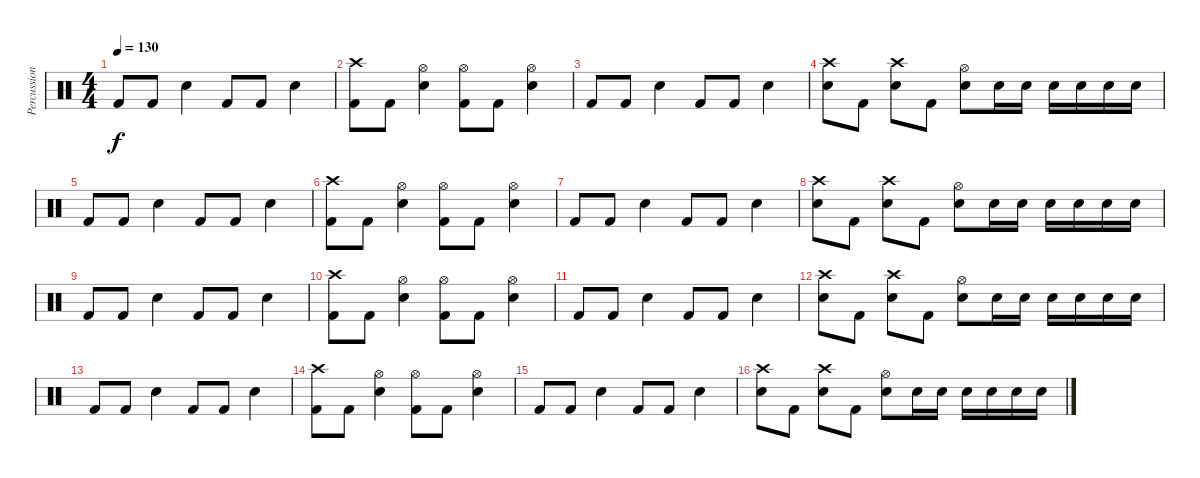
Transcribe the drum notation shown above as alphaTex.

\track ("Percussion" "Percussion") {instrument percussion}
\staff {score}
\articulation defaults
\ts (4 4)
\tempo 130
\clef neutral
\ks c "Kick (hit) 2".8{dy f} "Kick (hit) 2".8 "Snare (hit) 2".4 "Kick (hit) 2".8 "Kick (hit) 2".8 "Snare (hit) 2".4
|
("Crash high (hit)" "Kick (hit) 2").8 "Kick (hit) 2".8 ("Hi-Hat (open)" "Snare (hit) 2").4 ("Hi-Hat (open)" "Kick (hit) 2").8 "Kick (hit) 2".8 ("Hi-Hat (open)" "Snare (hit) 2").4 |
"Kick (hit) 2".8 "Kick (hit) 2".8 "Snare (hit) 2".4 "Kick (hit) 2".8 "Kick (hit) 2".8 "Snare (hit) 2".4 |
("Crash high (hit)" "Snare (hit) 2").8 "Kick (hit) 2".8 ("Crash high (hit)" "Snare (hit) 2").8 "Kick (hit) 2".8 ("Hi-Hat (open)" "Snare (hit) 2").8 "Snare (hit) 2".16 "Snare (hit) 2".16 "Snare (hit) 2".16 "Snare (hit) 2".16 "Snare (hit) 2".16 "Snare (hit) 2".16 |
"Kick (hit) 2".8 "Kick (hit) 2".8 "Snare (hit) 2".4 "Kick (hit) 2".8 "Kick (hit) 2".8 "Snare (hit) 2".4 |
("Crash high (hit)" "Kick (hit) 2").8 "Kick (hit) 2".8 ("Hi-Hat (open)" "Snare (hit) 2").4 ("Hi-Hat (open)" "Kick (hit) 2").8 "Kick (hit) 2".8 ("Hi-Hat (open)" "Snare (hit) 2").4 |
"Kick (hit) 2".8 "Kick (hit) 2".8 "Snare (hit) 2".4 "Kick (hit) 2".8 "Kick (hit) 2".8 "Snare (hit) 2".4 |
("Crash high (hit)" "Snare (hit) 2").8 "Kick (hit) 2".8 ("Crash high (hit)" "Snare (hit) 2").8 "Kick (hit) 2".8 ("Hi-Hat (open)" "Snare (hit) 2").8 "Snare (hit) 2".16 "Snare (hit) 2".16 "Snare (hit) 2".16 "Snare (hit) 2".16 "Snare (hit) 2".16 "Snare (hit) 2".16 |
"Kick (hit) 2".8 "Kick (hit) 2".8 "Snare (hit) 2".4 "Kick (hit) 2".8 "Kick (hit) 2".8 "Snare (hit) 2".4 |
("Crash high (hit)" "Kick (hit) 2").8 "Kick (hit) 2".8 ("Hi-Hat (open)" "Snare (hit) 2").4 ("Hi-Hat (open)" "Kick (hit) 2").8 "Kick (hit) 2".8 ("Hi-Hat (open)" "Snare (hit) 2").4 |
"Kick (hit) 2".8 "Kick (hit) 2".8 "Snare (hit) 2".4 "Kick (hit) 2".8 "Kick (hit) 2".8 "Snare (hit) 2".4 |
("Crash high (hit)" "Snare (hit) 2").8 "Kick (hit) 2".8 ("Crash high (hit)" "Snare (hit) 2").8 "Kick (hit) 2".8 ("Hi-Hat (open)" "Snare (hit) 2").8 "Snare (hit) 2".16 "Snare (hit) 2".16 "Snare (hit) 2".16 "Snare (hit) 2".16 "Snare (hit) 2".16 "Snare (hit) 2".16 |
"Kick (hit) 2".8 "Kick (hit) 2".8 "Snare (hit) 2".4 "Kick (hit) 2".8 "Kick (hit) 2".8 "Snare (hit) 2".4 |
("Crash high (hit)" "Kick (hit) 2").8 "Kick (hit) 2".8 ("Hi-Hat (open)" "Snare (hit) 2").4 ("Hi-Hat (open)" "Kick (hit) 2").8 "Kick (hit) 2".8 ("Hi-Hat (open)" "Snare (hit) 2").4 |
"Kick (hit) 2".8 "Kick (hit) 2".8 "Snare (hit) 2".4 "Kick (hit) 2".8 "Kick (hit) 2".8 "Snare (hit) 2".4 |
("Crash high (hit)" "Snare (hit) 2").8 "Kick (hit) 2".8 ("Crash high (hit)" "Snare (hit) 2").8 "Kick (hit) 2".8 ("Hi-Hat (open)" "Snare (hit) 2").8 "Snare (hit) 2".16 "Snare (hit) 2".16 "Snare (hit) 2".16 "Snare (hit) 2".16 "Snare (hit) 2".16 "Snare (hit) 2".16
